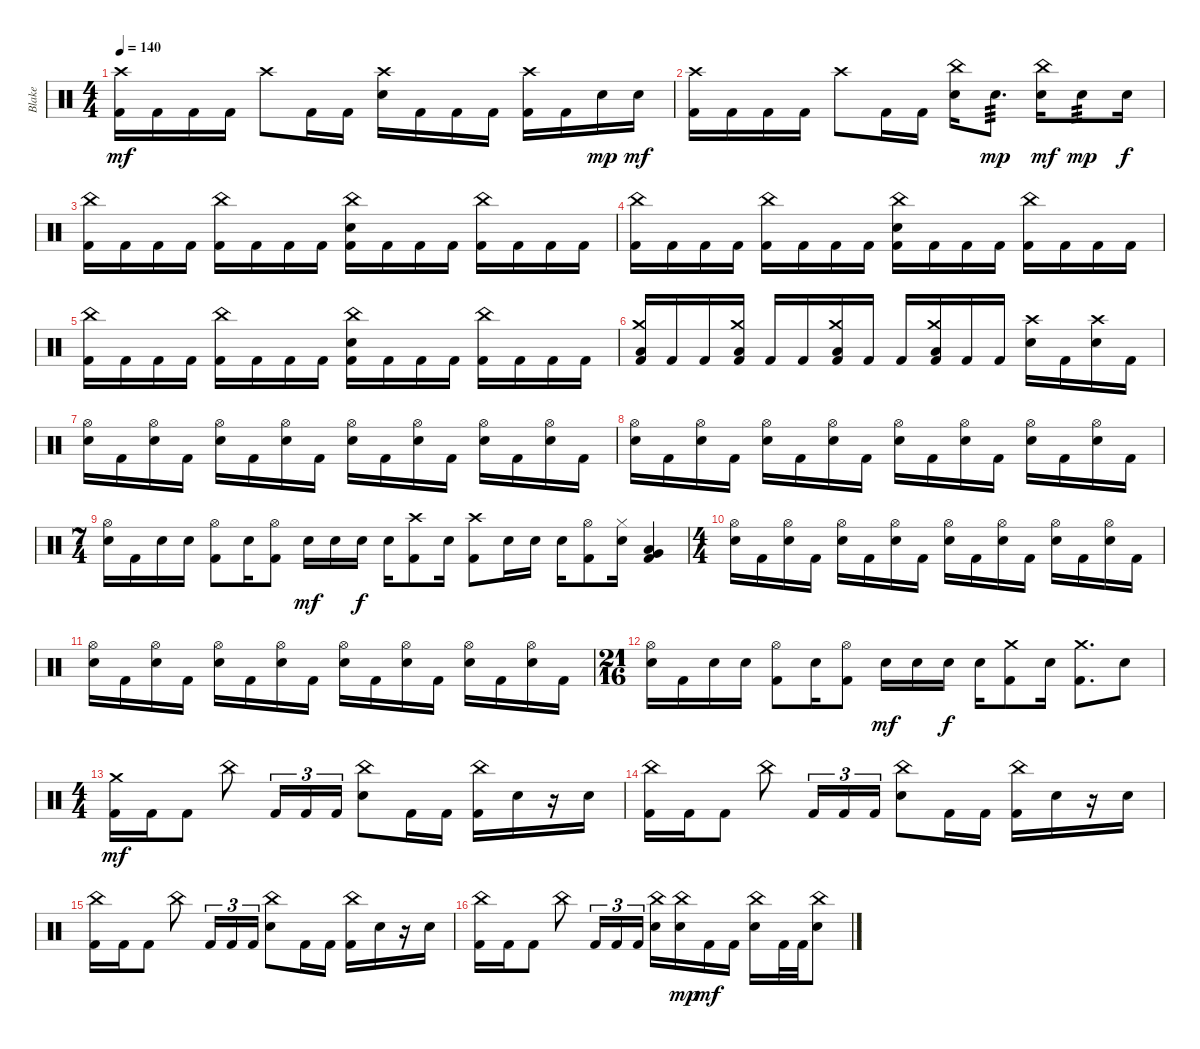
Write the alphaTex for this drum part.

\track ("Blake" "Blake") {instrument percussion}
\staff {score}
\articulation defaults
\ts (4 4)
\tempo 140
\clef neutral
\ks c
("Crash high (hit)" "Kick (hit) 2").16{dy mf} "Kick (hit) 2".16 "Kick (hit) 2".16 "Kick (hit) 2".16 "Crash high (hit)".8 "Kick (hit) 2".16 "Kick (hit) 2".16 ("Crash high (hit)" "Snare (hit) 2").16 "Kick (hit) 2".16 "Kick (hit) 2".16 "Kick (hit) 2".16 ("Crash high (hit)" "Kick (hit) 2").16 "Kick (hit) 2".16 "Snare (hit) 2".16{dy mp} "Snare (hit) 2".16{dy mf} |
("Crash high (hit)" "Kick (hit) 2").16 "Kick (hit) 2".16 "Kick (hit) 2".16 "Kick (hit) 2".16 "Crash high (hit)".8 "Kick (hit) 2".16 "Kick (hit) 2".16 ("China (hit)" "Snare (hit) 2").16 "Snare (hit) 2".8{d tp 3 dy mp} ("China (hit)" "Snare (hit) 2").16{dy mf} "Snare (hit) 2".8{tp 3 dy mp} "Snare (hit) 2".16{dy f} |
("China (hit)" "Kick (hit) 2").16 "Kick (hit) 2".16 "Kick (hit) 2".16 "Kick (hit) 2".16 ("China (hit)" "Kick (hit) 2").16 "Kick (hit) 2".16 "Kick (hit) 2".16 "Kick (hit) 2".16 ("China (hit)" "Snare (hit) 2" "Kick (hit) 2").16 "Kick (hit) 2".16 "Kick (hit) 2".16 "Kick (hit) 2".16 ("China (hit)" "Kick (hit) 2").16 "Kick (hit) 2".16 "Kick (hit) 2".16 "Kick (hit) 2".16 |
("China (hit)" "Kick (hit) 2").16 "Kick (hit) 2".16 "Kick (hit) 2".16 "Kick (hit) 2".16 ("China (hit)" "Kick (hit) 2").16 "Kick (hit) 2".16 "Kick (hit) 2".16 "Kick (hit) 2".16 ("China (hit)" "Snare (hit) 2" "Kick (hit) 2").16 "Kick (hit) 2".16 "Kick (hit) 2".16 "Kick (hit) 2".16 ("China (hit)" "Kick (hit) 2").16 "Kick (hit) 2".16 "Kick (hit) 2".16 "Kick (hit) 2".16 |
("China (hit)" "Kick (hit) 2").16 "Kick (hit) 2".16 "Kick (hit) 2".16 "Kick (hit) 2".16 ("China (hit)" "Kick (hit) 2").16 "Kick (hit) 2".16 "Kick (hit) 2".16 "Kick (hit) 2".16 ("China (hit)" "Snare (hit) 2" "Kick (hit) 2").16 "Kick (hit) 2".16 "Kick (hit) 2".16 "Kick (hit) 2".16 ("China (hit)" "Kick (hit) 2").16 "Kick (hit) 2".16 "Kick (hit) 2".16 "Kick (hit) 2".16 |
("Crash medium (hit)" "Low Floor Tom (hit)" "Kick (hit) 2").16 "Kick (hit) 2".16 "Kick (hit) 2".16 ("Crash medium (hit)" "Low Floor Tom (hit)" "Kick (hit) 2").16 "Kick (hit) 2".16 "Kick (hit) 2".16 ("Crash medium (hit)" "Low Floor Tom (hit)" "Kick (hit) 2").16 "Kick (hit) 2".16 "Kick (hit) 2".16 ("Crash medium (hit)" "Low Floor Tom (hit)" "Kick (hit) 2").16 "Kick (hit) 2".16 "Kick (hit) 2".16 ("Crash high (hit)" "Snare (hit) 2").16 "Kick (hit) 2".16 ("Crash high (hit)" "Snare (hit) 2").16 "Kick (hit) 2".16 |
("Hi-Hat (open)" "Snare (hit) 2").16 "Kick (hit) 2".16 ("Hi-Hat (open)" "Snare (hit) 2").16 "Kick (hit) 2".16 ("Hi-Hat (open)" "Snare (hit) 2").16 "Kick (hit) 2".16 ("Hi-Hat (open)" "Snare (hit) 2").16 "Kick (hit) 2".16 ("Hi-Hat (open)" "Snare (hit) 2").16 "Kick (hit) 2".16 ("Hi-Hat (open)" "Snare (hit) 2").16 "Kick (hit) 2".16 ("Hi-Hat (open)" "Snare (hit) 2").16 "Kick (hit) 2".16 ("Hi-Hat (open)" "Snare (hit) 2").16 "Kick (hit) 2".16 |
("Hi-Hat (open)" "Snare (hit) 2").16 "Kick (hit) 2".16 ("Hi-Hat (open)" "Snare (hit) 2").16 "Kick (hit) 2".16 ("Hi-Hat (open)" "Snare (hit) 2").16 "Kick (hit) 2".16 ("Hi-Hat (open)" "Snare (hit) 2").16 "Kick (hit) 2".16 ("Hi-Hat (open)" "Snare (hit) 2").16 "Kick (hit) 2".16 ("Hi-Hat (open)" "Snare (hit) 2").16 "Kick (hit) 2".16 ("Hi-Hat (open)" "Snare (hit) 2").16 "Kick (hit) 2".16 ("Hi-Hat (open)" "Snare (hit) 2").16 "Kick (hit) 2".16 |
\ts (7 4)
("Hi-Hat (open)" "Snare (hit) 2").16 "Kick (hit) 2".16 "Snare (hit) 2".16 "Snare (hit) 2".16 ("Hi-Hat (open)" "Kick (hit) 2").8 "Snare (hit) 2".16 ("Hi-Hat (open)" "Kick (hit) 2").8 "Snare (hit) 2".16{dy mf} "Snare (hit) 2".16 "Snare (hit) 2".16{dy f} "Snare (hit) 2".16 ("Crash high (hit)" "Kick (hit) 2").8 "Snare (hit) 2".16 ("Crash high (hit)" "Kick (hit) 2").8 "Snare (hit) 2".16 "Snare (hit) 2".16 "Snare (hit) 2".16 ("Hi-Hat (open)" "Kick (hit) 2").8 ("Hi-Hat (closed)" "Snare (hit) 2").16 ("Very Low Tom (hit)" "Low Floor Tom (hit)" "Kick (hit) 2").4 |
\ts (4 4)
("Hi-Hat (open)" "Snare (hit) 2").16 "Kick (hit) 2".16 ("Hi-Hat (open)" "Snare (hit) 2").16 "Kick (hit) 2".16 ("Hi-Hat (open)" "Snare (hit) 2").16 "Kick (hit) 2".16 ("Hi-Hat (open)" "Snare (hit) 2").16 "Kick (hit) 2".16 ("Hi-Hat (open)" "Snare (hit) 2").16 "Kick (hit) 2".16 ("Hi-Hat (open)" "Snare (hit) 2").16 "Kick (hit) 2".16 ("Hi-Hat (open)" "Snare (hit) 2").16 "Kick (hit) 2".16 ("Hi-Hat (open)" "Snare (hit) 2").16 "Kick (hit) 2".16 |
("Hi-Hat (open)" "Snare (hit) 2").16 "Kick (hit) 2".16 ("Hi-Hat (open)" "Snare (hit) 2").16 "Kick (hit) 2".16 ("Hi-Hat (open)" "Snare (hit) 2").16 "Kick (hit) 2".16 ("Hi-Hat (open)" "Snare (hit) 2").16 "Kick (hit) 2".16 ("Hi-Hat (open)" "Snare (hit) 2").16 "Kick (hit) 2".16 ("Hi-Hat (open)" "Snare (hit) 2").16 "Kick (hit) 2".16 ("Hi-Hat (open)" "Snare (hit) 2").16 "Kick (hit) 2".16 ("Hi-Hat (open)" "Snare (hit) 2").16 "Kick (hit) 2".16 |
\ts (21 16)
("Hi-Hat (open)" "Snare (hit) 2").16 "Kick (hit) 2".16 "Snare (hit) 2".16 "Snare (hit) 2".16 ("Hi-Hat (open)" "Kick (hit) 2").8 "Snare (hit) 2".16 ("Hi-Hat (open)" "Kick (hit) 2").8 "Snare (hit) 2".16{dy mf} "Snare (hit) 2".16 "Snare (hit) 2".16{dy f} "Snare (hit) 2".16 ("Crash medium (hit)" "Kick (hit) 2").8 "Snare (hit) 2".16 ("Crash medium (hit)" "Kick (hit) 2").8{d} "Snare (hit) 2".8 |
\ts (4 4)
("Crash medium (hit)" "Kick (hit) 2").16{dy mf} "Kick (hit) 2".16 "Kick (hit) 2".8 "China (hit)".8 "Kick (hit) 2".16{tu (3 2)} "Kick (hit) 2".16{tu (3 2)} "Kick (hit) 2".16{tu (3 2)} ("China (hit)" "Snare (hit) 2").8 "Kick (hit) 2".16 "Kick (hit) 2".16 ("China (hit)" "Kick (hit) 2").16 "Snare (hit) 2".16 r.16 "Snare (hit) 2".16 |
("China (hit)" "Kick (hit) 2").16 "Kick (hit) 2".16 "Kick (hit) 2".8 "China (hit)".8 "Kick (hit) 2".16{tu (3 2)} "Kick (hit) 2".16{tu (3 2)} "Kick (hit) 2".16{tu (3 2)} ("China (hit)" "Snare (hit) 2").8 "Kick (hit) 2".16 "Kick (hit) 2".16 ("China (hit)" "Kick (hit) 2").16 "Snare (hit) 2".16 r.16 "Snare (hit) 2".16 |
("China (hit)" "Kick (hit) 2").16 "Kick (hit) 2".16 "Kick (hit) 2".8 "China (hit)".8 "Kick (hit) 2".16{tu (3 2)} "Kick (hit) 2".16{tu (3 2)} "Kick (hit) 2".16{tu (3 2)} ("China (hit)" "Snare (hit) 2").8 "Kick (hit) 2".16 "Kick (hit) 2".16 ("China (hit)" "Kick (hit) 2").16 "Snare (hit) 2".16 r.16 "Snare (hit) 2".16 |
("China (hit)" "Kick (hit) 2").16 "Kick (hit) 2".16 "Kick (hit) 2".8 "China (hit)".8 "Kick (hit) 2".16{tu (3 2)} "Kick (hit) 2".16{tu (3 2)} "Kick (hit) 2".16{tu (3 2)} ("China (hit)" "Snare (hit) 2").16 ("China (hit)" "Snare (hit) 2").16{dy mp} "Kick (hit) 2".16{dy mf} "Kick (hit) 2".16 ("China (hit)" "Snare (hit) 2").16 "Kick (hit) 2".32 "Kick (hit) 2".32 ("China (hit)" "Snare (hit) 2").8
